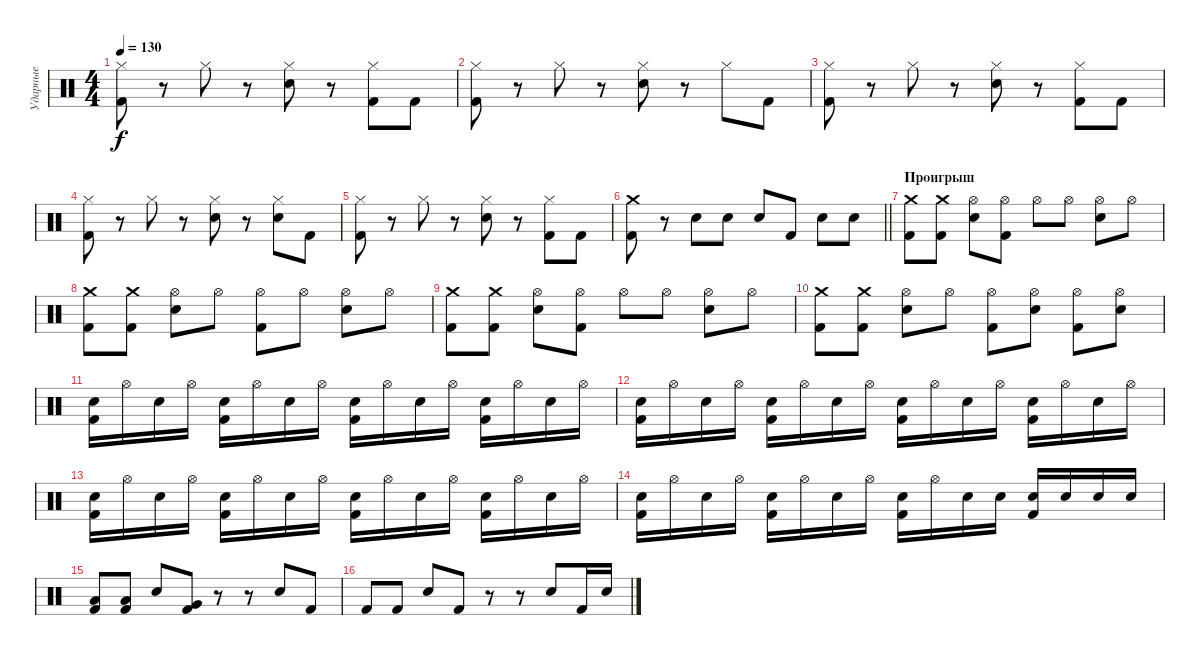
\track ("Ударные" "Ударные") {instrument percussion}
\staff {score}
\articulation defaults
\ts (4 4)
\tempo 130
\clef neutral
\ks c
("Hi-Hat (closed)" "Kick (hit) 2").8{dy f} r.8 "Hi-Hat (closed)".8 r.8 ("Hi-Hat (closed)" "Snare (hit) 2").8 r.8 ("Hi-Hat (closed)" "Kick (hit) 2").8 "Kick (hit) 2".8 |
("Hi-Hat (closed)" "Kick (hit) 2").8 r.8 "Hi-Hat (closed)".8 r.8 ("Hi-Hat (closed)" "Snare (hit) 2").8 r.8 "Hi-Hat (closed)".8 "Kick (hit) 2".8 |
("Hi-Hat (closed)" "Kick (hit) 2").8 r.8 "Hi-Hat (closed)".8 r.8 ("Hi-Hat (closed)" "Snare (hit) 2").8 r.8 ("Hi-Hat (closed)" "Kick (hit) 2").8 "Kick (hit) 2".8 |
("Hi-Hat (closed)" "Kick (hit) 2").8 r.8 "Hi-Hat (closed)".8 r.8 ("Hi-Hat (closed)" "Snare (hit) 2").8 r.8 ("Hi-Hat (closed)" "Snare (hit) 2").8 "Kick (hit) 2".8 |
("Hi-Hat (closed)" "Kick (hit) 2").8 r.8 "Hi-Hat (closed)".8 r.8 ("Hi-Hat (closed)" "Snare (hit) 2").8 r.8 ("Hi-Hat (closed)" "Kick (hit) 2").8 "Kick (hit) 2".8 |
\barLineRight lightlight
("Crash medium (hit)" "Kick (hit) 2").8 r.8 "Snare (hit) 2".8 "Snare (hit) 2".8 "Snare (hit) 2".8 "Kick (hit) 2".8 "Snare (hit) 2".8 "Snare (hit) 2".8 |
\section ("" "Проигрыш")
("Crash medium (hit)" "Kick (hit) 2").8 ("Crash medium (hit)" "Kick (hit) 2").8 ("Hi-Hat (open)" "Snare (hit) 2").8 ("Hi-Hat (open)" "Kick (hit) 2").8 "Hi-Hat (open)".8 "Hi-Hat (open)".8 ("Hi-Hat (open)" "Snare (hit) 2").8 "Hi-Hat (open)".8 |
("Crash medium (hit)" "Kick (hit) 2").8 ("Crash medium (hit)" "Kick (hit) 2").8 ("Hi-Hat (open)" "Snare (hit) 2").8 "Hi-Hat (open)".8 ("Hi-Hat (open)" "Kick (hit) 2").8 "Hi-Hat (open)".8 ("Hi-Hat (open)" "Snare (hit) 2").8 "Hi-Hat (open)".8 |
("Crash medium (hit)" "Kick (hit) 2").8 ("Crash medium (hit)" "Kick (hit) 2").8 ("Hi-Hat (open)" "Snare (hit) 2").8 ("Hi-Hat (open)" "Kick (hit) 2").8 "Hi-Hat (open)".8 "Hi-Hat (open)".8 ("Hi-Hat (open)" "Snare (hit) 2").8 "Hi-Hat (open)".8 |
("Crash medium (hit)" "Kick (hit) 2").8 ("Crash medium (hit)" "Kick (hit) 2").8 ("Hi-Hat (open)" "Snare (hit) 2").8 "Hi-Hat (open)".8 ("Hi-Hat (open)" "Kick (hit) 2").8 ("Hi-Hat (open)" "Snare (hit) 2").8 ("Hi-Hat (open)" "Kick (hit) 2").8 ("Hi-Hat (open)" "Snare (hit) 2").8 |
("Electric Snare (hit)" "Kick (hit) 2").16 "Hi-Hat (open)".16 "Electric Snare (hit)".16 "Hi-Hat (open)".16 ("Electric Snare (hit)" "Kick (hit) 2").16 "Hi-Hat (open)".16 "Electric Snare (hit)".16 "Hi-Hat (open)".16 ("Electric Snare (hit)" "Kick (hit) 2").16 "Hi-Hat (open)".16 "Electric Snare (hit)".16 "Hi-Hat (open)".16 ("Electric Snare (hit)" "Kick (hit) 2").16 "Hi-Hat (open)".16 "Electric Snare (hit)".16 "Hi-Hat (open)".16 |
("Electric Snare (hit)" "Kick (hit) 2").16 "Hi-Hat (open)".16 "Electric Snare (hit)".16 "Hi-Hat (open)".16 ("Electric Snare (hit)" "Kick (hit) 2").16 "Hi-Hat (open)".16 "Electric Snare (hit)".16 "Hi-Hat (open)".16 ("Electric Snare (hit)" "Kick (hit) 2").16 "Hi-Hat (open)".16 "Electric Snare (hit)".16 "Hi-Hat (open)".16 ("Electric Snare (hit)" "Kick (hit) 2").16 "Hi-Hat (open)".16 "Electric Snare (hit)".16 "Hi-Hat (open)".16 |
("Electric Snare (hit)" "Kick (hit) 2").16 "Hi-Hat (open)".16 "Electric Snare (hit)".16 "Hi-Hat (open)".16 ("Electric Snare (hit)" "Kick (hit) 2").16 "Hi-Hat (open)".16 "Electric Snare (hit)".16 "Hi-Hat (open)".16 ("Electric Snare (hit)" "Kick (hit) 2").16 "Hi-Hat (open)".16 "Electric Snare (hit)".16 "Hi-Hat (open)".16 ("Electric Snare (hit)" "Kick (hit) 2").16 "Hi-Hat (open)".16 "Electric Snare (hit)".16 "Hi-Hat (open)".16 |
("Electric Snare (hit)" "Kick (hit) 2").16 "Hi-Hat (open)".16 "Electric Snare (hit)".16 "Hi-Hat (open)".16 ("Electric Snare (hit)" "Kick (hit) 2").16 "Hi-Hat (open)".16 "Electric Snare (hit)".16 "Hi-Hat (open)".16 ("Electric Snare (hit)" "Kick (hit) 2").16 "Hi-Hat (open)".16 "Electric Snare (hit)".16 "Electric Snare (hit)".16 ("Electric Snare (hit)" "Kick (hit) 2").16 "Electric Snare (hit)".16 "Electric Snare (hit)".16 "Electric Snare (hit)".16 |
("Low Floor Tom (hit)" "Kick (hit) 2").8 ("Low Floor Tom (hit)" "Kick (hit) 2").8 "Snare (hit) 2".8 ("Very Low Tom (hit)" "Kick (hit) 2").8 r.8 r.8 "Snare (hit) 2".8 "Kick (hit) 2".8 |
"Kick (hit) 2".8 "Kick (hit) 2".8 "Snare (hit) 2".8 "Kick (hit) 2".8 r.8 r.8 "Snare (hit) 2".8 "Kick (hit) 2".16 "Snare (hit) 2".16
